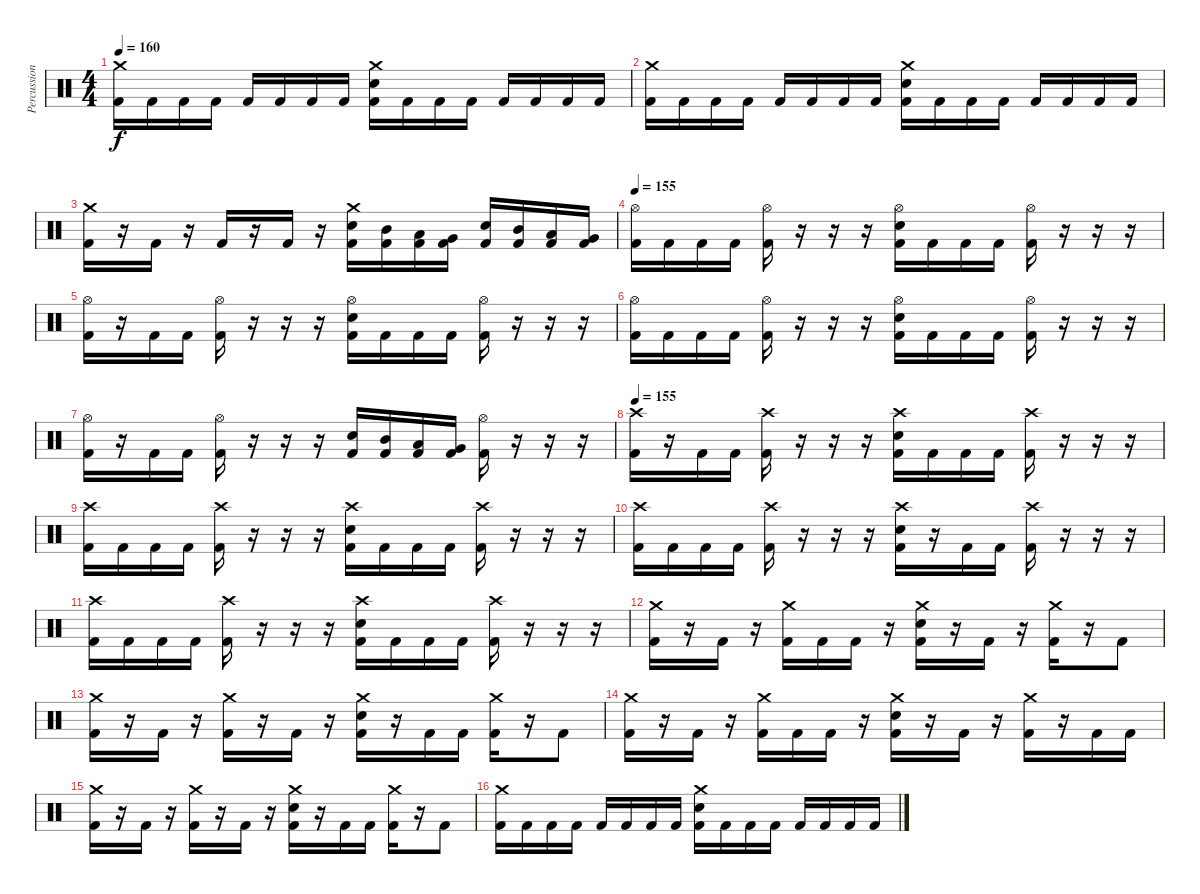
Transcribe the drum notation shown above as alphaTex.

\track ("Percussion" "Percussion") {instrument percussion}
\staff {score}
\articulation defaults
\ts (4 4)
\tempo 160
\clef neutral
\ks c
("Crash medium (hit)" "Kick (hit) 2").16{dy f} "Kick (hit) 2".16 "Kick (hit) 2".16 "Kick (hit) 2".16 "Kick (hit) 2".16 "Kick (hit) 2".16 "Kick (hit) 2".16 "Kick (hit) 2".16 ("Crash medium (hit)" "Electric Snare (hit)" "Kick (hit) 2").16 "Kick (hit) 2".16 "Kick (hit) 2".16 "Kick (hit) 2".16 "Kick (hit) 2".16 "Kick (hit) 2".16 "Kick (hit) 2".16 "Kick (hit) 2".16 |
("Crash medium (hit)" "Kick (hit) 2").16 "Kick (hit) 2".16 "Kick (hit) 2".16 "Kick (hit) 2".16 "Kick (hit) 2".16 "Kick (hit) 2".16 "Kick (hit) 2".16 "Kick (hit) 2".16 ("Crash medium (hit)" "Electric Snare (hit)" "Kick (hit) 2").16 "Kick (hit) 2".16 "Kick (hit) 2".16 "Kick (hit) 2".16 "Kick (hit) 2".16 "Kick (hit) 2".16 "Kick (hit) 2".16 "Kick (hit) 2".16 |
("Crash medium (hit)" "Kick (hit) 2").16 r.16 "Kick (hit) 2".16 r.16 "Kick (hit) 2".16 r.16 "Kick (hit) 2".16 r.16 ("Crash medium (hit)" "Electric Snare (hit)" "Kick (hit) 2").16 ("Mid Tom (hit)" "Kick (hit) 2").16 ("Low Tom (hit)" "Kick (hit) 2").16 ("Very Low Tom (hit)" "Kick (hit) 2").16 ("Electric Snare (hit)" "Kick (hit) 2").16 ("Mid Tom (hit)" "Kick (hit) 2").16 ("Low Tom (hit)" "Kick (hit) 2").16 ("Very Low Tom (hit)" "Kick (hit) 2").16 |
\tempo 155
("Hi-Hat (open)" "Kick (hit) 2").16 "Kick (hit) 2".16 "Kick (hit) 2".16 "Kick (hit) 2".16 ("Hi-Hat (open)" "Kick (hit) 2").16 r.16 r.16 r.16 ("Hi-Hat (open)" "Electric Snare (hit)" "Kick (hit) 2").16 "Kick (hit) 2".16 "Kick (hit) 2".16 "Kick (hit) 2".16 ("Hi-Hat (open)" "Kick (hit) 2").16 r.16 r.16 r.16 |
("Hi-Hat (open)" "Kick (hit) 2").16 r.16 "Kick (hit) 2".16 "Kick (hit) 2".16 ("Hi-Hat (open)" "Kick (hit) 2").16 r.16 r.16 r.16 ("Hi-Hat (open)" "Electric Snare (hit)" "Kick (hit) 2").16 "Kick (hit) 2".16 "Kick (hit) 2".16 "Kick (hit) 2".16 ("Hi-Hat (open)" "Kick (hit) 2").16 r.16 r.16 r.16 |
("Hi-Hat (open)" "Kick (hit) 2").16 "Kick (hit) 2".16 "Kick (hit) 2".16 "Kick (hit) 2".16 ("Hi-Hat (open)" "Kick (hit) 2").16 r.16 r.16 r.16 ("Hi-Hat (open)" "Electric Snare (hit)" "Kick (hit) 2").16 "Kick (hit) 2".16 "Kick (hit) 2".16 "Kick (hit) 2".16 ("Hi-Hat (open)" "Kick (hit) 2").16 r.16 r.16 r.16 |
("Hi-Hat (open)" "Kick (hit) 2").16 r.16 "Kick (hit) 2".16 "Kick (hit) 2".16 ("Hi-Hat (open)" "Kick (hit) 2").16 r.16 r.16 r.16 ("Electric Snare (hit)" "Kick (hit) 2").16 ("Mid Tom (hit)" "Kick (hit) 2").16 ("Low Tom (hit)" "Kick (hit) 2").16 ("Very Low Tom (hit)" "Kick (hit) 2").16 ("Hi-Hat (open)" "Kick (hit) 2").16 r.16 r.16 r.16 |
\tempo 155
("Crash high (hit)" "Kick (hit) 2").16 r.16 "Kick (hit) 2".16 "Kick (hit) 2".16 ("Crash high (hit)" "Kick (hit) 2").16 r.16 r.16 r.16 ("Crash high (hit)" "Electric Snare (hit)" "Kick (hit) 2").16 "Kick (hit) 2".16 "Kick (hit) 2".16 "Kick (hit) 2".16 ("Crash high (hit)" "Kick (hit) 2").16 r.16 r.16 r.16 |
("Crash high (hit)" "Kick (hit) 2").16 "Kick (hit) 2".16 "Kick (hit) 2".16 "Kick (hit) 2".16 ("Crash high (hit)" "Kick (hit) 2").16 r.16 r.16 r.16 ("Crash high (hit)" "Electric Snare (hit)" "Kick (hit) 2").16 "Kick (hit) 2".16 "Kick (hit) 2".16 "Kick (hit) 2".16 ("Crash high (hit)" "Kick (hit) 2").16 r.16 r.16 r.16 |
("Crash high (hit)" "Kick (hit) 2").16 "Kick (hit) 2".16 "Kick (hit) 2".16 "Kick (hit) 2".16 ("Crash high (hit)" "Kick (hit) 2").16 r.16 r.16 r.16 ("Crash high (hit)" "Electric Snare (hit)" "Kick (hit) 2").16 r.16 "Kick (hit) 2".16 "Kick (hit) 2".16 ("Crash high (hit)" "Kick (hit) 2").16 r.16 r.16 r.16 |
("Crash high (hit)" "Kick (hit) 2").16 "Kick (hit) 2".16 "Kick (hit) 2".16 "Kick (hit) 2".16 ("Crash high (hit)" "Kick (hit) 2").16 r.16 r.16 r.16 ("Crash high (hit)" "Electric Snare (hit)" "Kick (hit) 2").16 "Kick (hit) 2".16 "Kick (hit) 2".16 "Kick (hit) 2".16 ("Crash high (hit)" "Kick (hit) 2").16 r.16 r.16 r.16 |
("Crash medium (hit)" "Kick (hit) 2").16 r.16 "Kick (hit) 2".16 r.16 ("Crash medium (hit)" "Kick (hit) 2").16 "Kick (hit) 2".16 "Kick (hit) 2".16 r.16 ("Crash medium (hit)" "Electric Snare (hit)" "Kick (hit) 2").16 r.16 "Kick (hit) 2".16 r.16 ("Crash medium (hit)" "Kick (hit) 2").16 r.16 "Kick (hit) 2".8 |
("Crash medium (hit)" "Kick (hit) 2").16 r.16 "Kick (hit) 2".16 r.16 ("Crash medium (hit)" "Kick (hit) 2").16 r.16 "Kick (hit) 2".16 r.16 ("Crash medium (hit)" "Electric Snare (hit)" "Kick (hit) 2").16 r.16 "Kick (hit) 2".16 "Kick (hit) 2".16 ("Crash medium (hit)" "Kick (hit) 2").16 r.16 "Kick (hit) 2".8 |
("Crash medium (hit)" "Kick (hit) 2").16 r.16 "Kick (hit) 2".16 r.16 ("Crash medium (hit)" "Kick (hit) 2").16 "Kick (hit) 2".16 "Kick (hit) 2".16 r.16 ("Crash medium (hit)" "Electric Snare (hit)" "Kick (hit) 2").16 r.16 "Kick (hit) 2".16 r.16 ("Crash medium (hit)" "Kick (hit) 2").16 r.16 "Kick (hit) 2".16 "Kick (hit) 2".16 |
("Crash medium (hit)" "Kick (hit) 2").16 r.16 "Kick (hit) 2".16 r.16 ("Crash medium (hit)" "Kick (hit) 2").16 r.16 "Kick (hit) 2".16 r.16 ("Crash medium (hit)" "Electric Snare (hit)" "Kick (hit) 2").16 r.16 "Kick (hit) 2".16 "Kick (hit) 2".16 ("Crash medium (hit)" "Kick (hit) 2").16 r.16 "Kick (hit) 2".8 |
("Crash medium (hit)" "Kick (hit) 2").16 "Kick (hit) 2".16 "Kick (hit) 2".16 "Kick (hit) 2".16 "Kick (hit) 2".16 "Kick (hit) 2".16 "Kick (hit) 2".16 "Kick (hit) 2".16 ("Crash medium (hit)" "Electric Snare (hit)" "Kick (hit) 2").16 "Kick (hit) 2".16 "Kick (hit) 2".16 "Kick (hit) 2".16 "Kick (hit) 2".16 "Kick (hit) 2".16 "Kick (hit) 2".16 "Kick (hit) 2".16
